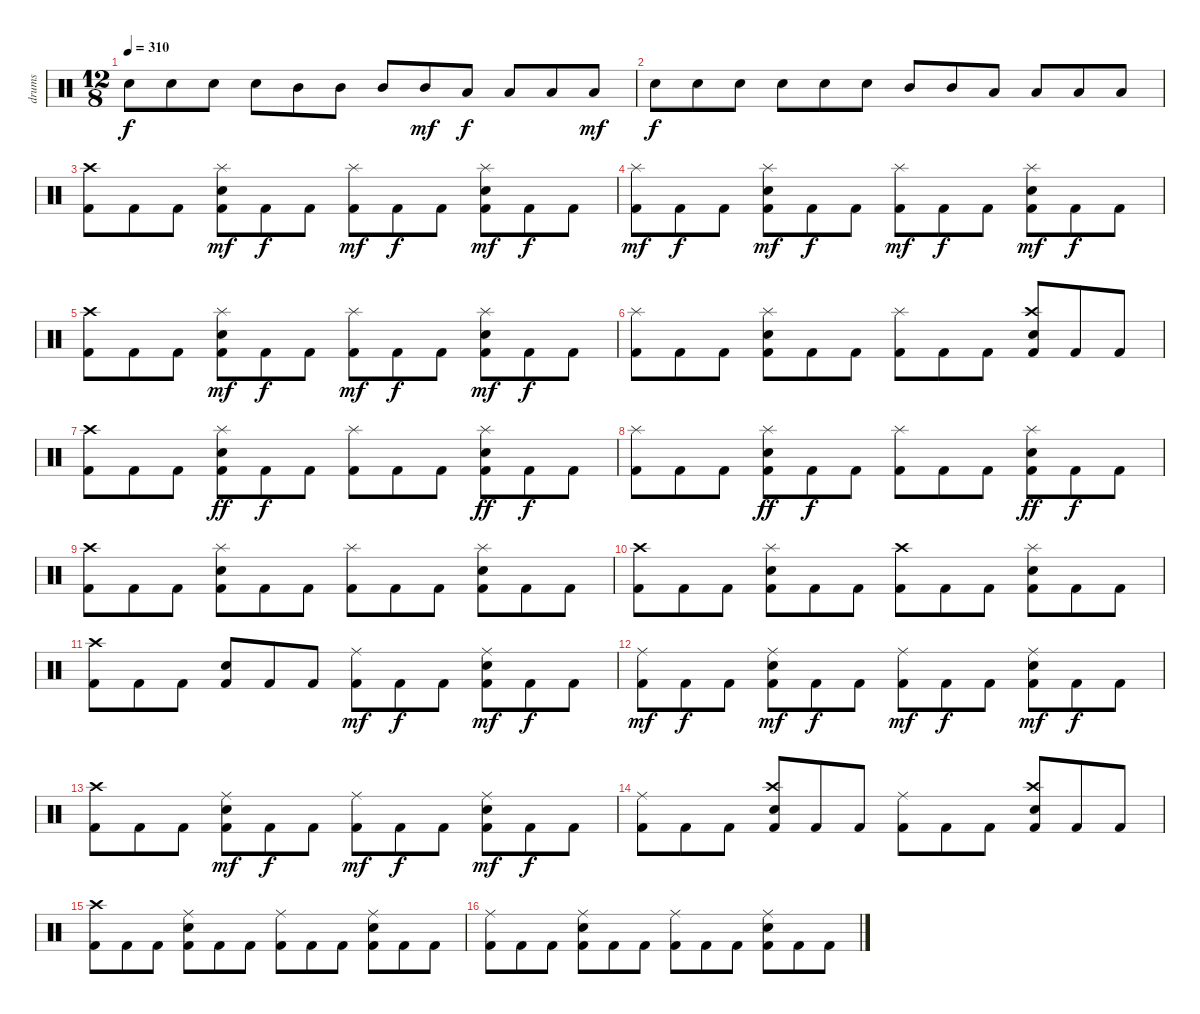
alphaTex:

\track ("drums" "drums") {instrument percussion}
\staff {score}
\articulation defaults
\ts (12 8)
\tempo 310
\clef neutral
\ks c "Snare (hit) 2".8{dy f} "Snare (hit) 2".8 "Snare (hit) 2".8 "Snare (hit) 2".8 "Mid Tom (hit)".8 "Mid Tom (hit)".8 "Mid Tom (hit)".8 "Mid Tom (hit)".8{dy mf} "Low Tom (hit)".8{dy f} "Low Tom (hit)".8 "Low Tom (hit)".8 "Low Tom (hit)".8{dy mf}
|
"Snare (hit) 2".8{dy f} "Snare (hit) 2".8 "Snare (hit) 2".8 "Snare (hit) 2".8 "Snare (hit) 2".8 "Snare (hit) 2".8 "Mid Tom (hit)".8 "Mid Tom (hit)".8 "Low Tom (hit)".8 "Low Tom (hit)".8 "Low Floor Tom (hit)".8 "Low Floor Tom (hit)".8 |
("Crash high (hit)" "Kick (hit) 2").8 "Kick (hit) 2".8 "Kick (hit) 2".8 ("Splash (hit)" "Snare (hit) 2" "Kick (hit) 2").8{dy mf} "Kick (hit) 2".8{dy f} "Kick (hit) 2".8 ("Splash (hit)" "Kick (hit) 2").8{dy mf} "Kick (hit) 2".8{dy f} "Kick (hit) 2".8 ("Splash (hit)" "Snare (hit) 2" "Kick (hit) 2").8{dy mf} "Kick (hit) 2".8{dy f} "Kick (hit) 2".8 |
("Splash (hit)" "Kick (hit) 2").8{dy mf} "Kick (hit) 2".8{dy f} "Kick (hit) 2".8 ("Splash (hit)" "Snare (hit) 2" "Kick (hit) 2").8{dy mf} "Kick (hit) 2".8{dy f} "Kick (hit) 2".8 ("Splash (hit)" "Kick (hit) 2").8{dy mf} "Kick (hit) 2".8{dy f} "Kick (hit) 2".8 ("Splash (hit)" "Snare (hit) 2" "Kick (hit) 2").8{dy mf} "Kick (hit) 2".8{dy f} "Kick (hit) 2".8 |
("Crash high (hit)" "Kick (hit) 2").8 "Kick (hit) 2".8 "Kick (hit) 2".8 ("Splash (hit)" "Snare (hit) 2" "Kick (hit) 2").8{dy mf} "Kick (hit) 2".8{dy f} "Kick (hit) 2".8 ("Splash (hit)" "Kick (hit) 2").8{dy mf} "Kick (hit) 2".8{dy f} "Kick (hit) 2".8 ("Splash (hit)" "Snare (hit) 2" "Kick (hit) 2").8{dy mf} "Kick (hit) 2".8{dy f} "Kick (hit) 2".8 |
("Splash (hit)" "Kick (hit) 2").8 "Kick (hit) 2".8 "Kick (hit) 2".8 ("Splash (hit)" "Snare (hit) 2" "Kick (hit) 2").8 "Kick (hit) 2".8 "Kick (hit) 2".8 ("Splash (hit)" "Kick (hit) 2").8 "Kick (hit) 2".8 "Kick (hit) 2".8 ("Crash high (hit)" "Snare (hit) 2" "Kick (hit) 2").8 "Kick (hit) 2".8 "Kick (hit) 2".8 |
("Crash high (hit)" "Kick (hit) 2").8 "Kick (hit) 2".8 "Kick (hit) 2".8 ("Splash (hit)" "Snare (hit) 2" "Kick (hit) 2").8{dy ff} "Kick (hit) 2".8{dy f} "Kick (hit) 2".8 ("Splash (hit)" "Kick (hit) 2").8 "Kick (hit) 2".8 "Kick (hit) 2".8 ("Splash (hit)" "Snare (hit) 2" "Kick (hit) 2").8{dy ff} "Kick (hit) 2".8{dy f} "Kick (hit) 2".8 |
("Splash (hit)" "Kick (hit) 2").8 "Kick (hit) 2".8 "Kick (hit) 2".8 ("Splash (hit)" "Snare (hit) 2" "Kick (hit) 2").8{dy ff} "Kick (hit) 2".8{dy f} "Kick (hit) 2".8 ("Splash (hit)" "Kick (hit) 2").8 "Kick (hit) 2".8 "Kick (hit) 2".8 ("Splash (hit)" "Snare (hit) 2" "Kick (hit) 2").8{dy ff} "Kick (hit) 2".8{dy f} "Kick (hit) 2".8 |
("Crash high (hit)" "Kick (hit) 2").8 "Kick (hit) 2".8 "Kick (hit) 2".8 ("Splash (hit)" "Snare (hit) 2" "Kick (hit) 2").8 "Kick (hit) 2".8 "Kick (hit) 2".8 ("Splash (hit)" "Kick (hit) 2").8 "Kick (hit) 2".8 "Kick (hit) 2".8 ("Splash (hit)" "Snare (hit) 2" "Kick (hit) 2").8 "Kick (hit) 2".8 "Kick (hit) 2".8 |
("Crash high (hit)" "Kick (hit) 2").8 "Kick (hit) 2".8 "Kick (hit) 2".8 ("Splash (hit)" "Snare (hit) 2" "Kick (hit) 2").8 "Kick (hit) 2".8 "Kick (hit) 2".8 ("Crash high (hit)" "Kick (hit) 2").8 "Kick (hit) 2".8 "Kick (hit) 2".8 ("Splash (hit)" "Snare (hit) 2" "Kick (hit) 2").8 "Kick (hit) 2".8 "Kick (hit) 2".8 |
("Crash high (hit)" "Kick (hit) 2").8 "Kick (hit) 2".8 "Kick (hit) 2".8 ("Snare (hit) 2" "Kick (hit) 2").8 "Kick (hit) 2".8 "Kick (hit) 2".8 ("Ride (middle)" "Kick (hit) 2").8{dy mf} "Kick (hit) 2".8{dy f} "Kick (hit) 2".8 ("Ride (middle)" "Snare (hit) 2" "Kick (hit) 2").8{dy mf} "Kick (hit) 2".8{dy f} "Kick (hit) 2".8 |
("Ride (middle)" "Kick (hit) 2").8{dy mf} "Kick (hit) 2".8{dy f} "Kick (hit) 2".8 ("Ride (middle)" "Snare (hit) 2" "Kick (hit) 2").8{dy mf} "Kick (hit) 2".8{dy f} "Kick (hit) 2".8 ("Ride (middle)" "Kick (hit) 2").8{dy mf} "Kick (hit) 2".8{dy f} "Kick (hit) 2".8 ("Ride (middle)" "Snare (hit) 2" "Kick (hit) 2").8{dy mf} "Kick (hit) 2".8{dy f} "Kick (hit) 2".8 |
("Crash high (hit)" "Kick (hit) 2").8 "Kick (hit) 2".8 "Kick (hit) 2".8 ("Ride (middle)" "Snare (hit) 2" "Kick (hit) 2").8{dy mf} "Kick (hit) 2".8{dy f} "Kick (hit) 2".8 ("Ride (middle)" "Kick (hit) 2").8{dy mf} "Kick (hit) 2".8{dy f} "Kick (hit) 2".8 ("Ride (middle)" "Snare (hit) 2" "Kick (hit) 2").8{dy mf} "Kick (hit) 2".8{dy f} "Kick (hit) 2".8 |
("Ride (middle)" "Kick (hit) 2").8 "Kick (hit) 2".8 "Kick (hit) 2".8 ("Crash high (hit)" "Snare (hit) 2" "Kick (hit) 2").8 "Kick (hit) 2".8 "Kick (hit) 2".8 ("Ride (middle)" "Kick (hit) 2").8 "Kick (hit) 2".8 "Kick (hit) 2".8 ("Crash high (hit)" "Snare (hit) 2" "Kick (hit) 2").8 "Kick (hit) 2".8 "Kick (hit) 2".8 |
("Crash high (hit)" "Kick (hit) 2").8 "Kick (hit) 2".8 "Kick (hit) 2".8 ("Ride (middle)" "Snare (hit) 2" "Kick (hit) 2").8 "Kick (hit) 2".8 "Kick (hit) 2".8 ("Ride (middle)" "Kick (hit) 2").8 "Kick (hit) 2".8 "Kick (hit) 2".8 ("Ride (middle)" "Snare (hit) 2" "Kick (hit) 2").8 "Kick (hit) 2".8 "Kick (hit) 2".8 |
("Ride (middle)" "Kick (hit) 2").8 "Kick (hit) 2".8 "Kick (hit) 2".8 ("Ride (middle)" "Snare (hit) 2" "Kick (hit) 2").8 "Kick (hit) 2".8 "Kick (hit) 2".8 ("Ride (middle)" "Kick (hit) 2").8 "Kick (hit) 2".8 "Kick (hit) 2".8 ("Ride (middle)" "Snare (hit) 2" "Kick (hit) 2").8 "Kick (hit) 2".8 "Kick (hit) 2".8
